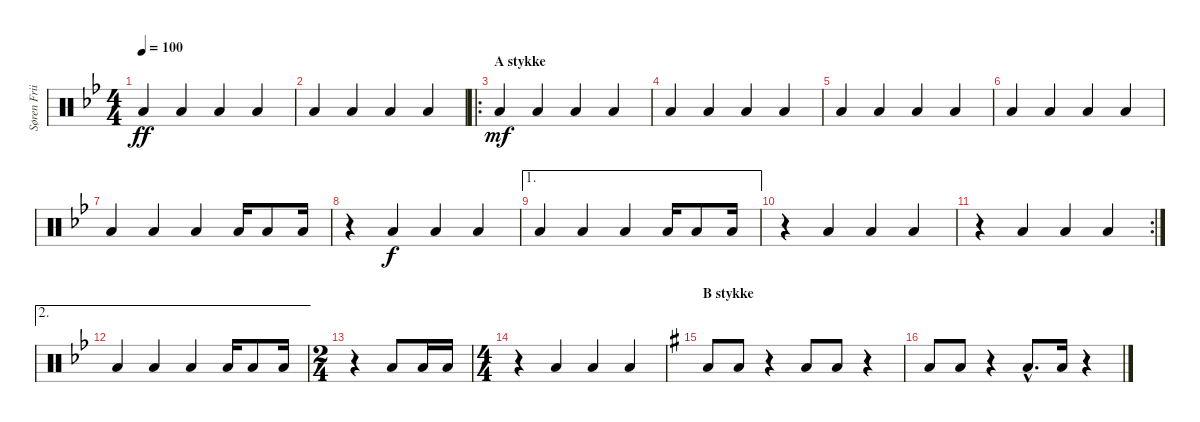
\track ("Søren Friis (Drums)" "Søren Frii") {instrument percussion}
\staff {score}
\articulation defaults
\ts (4 4)
\tempo 100
\clef neutral
\ks bb "Low Floor Tom (hit)".4{dy ff} "Low Floor Tom (hit)".4 "Low Floor Tom (hit)".4 "Low Floor Tom (hit)".4
|
"Low Floor Tom (hit)".4 "Low Floor Tom (hit)".4 "Low Floor Tom (hit)".4 "Low Floor Tom (hit)".4 |
\ro
\section ("" "A stykke")
"Low Floor Tom (hit)".4{dy mf} "Low Floor Tom (hit)".4 "Low Floor Tom (hit)".4 "Low Floor Tom (hit)".4 |
"Low Floor Tom (hit)".4 "Low Floor Tom (hit)".4 "Low Floor Tom (hit)".4 "Low Floor Tom (hit)".4 |
"Low Floor Tom (hit)".4 "Low Floor Tom (hit)".4 "Low Floor Tom (hit)".4 "Low Floor Tom (hit)".4 |
"Low Floor Tom (hit)".4 "Low Floor Tom (hit)".4 "Low Floor Tom (hit)".4 "Low Floor Tom (hit)".4 |
"Low Floor Tom (hit)".4 "Low Floor Tom (hit)".4 "Low Floor Tom (hit)".4 "Low Floor Tom (hit)".16 "Low Floor Tom (hit)".8 "Low Floor Tom (hit)".16 |
r.4 "Low Floor Tom (hit)".4{dy f} "Low Floor Tom (hit)".4 "Low Floor Tom (hit)".4 |
\ae 1 "Low Floor Tom (hit)".4 "Low Floor Tom (hit)".4 "Low Floor Tom (hit)".4 "Low Floor Tom (hit)".16 "Low Floor Tom (hit)".8 "Low Floor Tom (hit)".16
|
r.4 "Low Floor Tom (hit)".4 "Low Floor Tom (hit)".4 "Low Floor Tom (hit)".4 |
\rc 2
r.4 "Low Floor Tom (hit)".4 "Low Floor Tom (hit)".4 "Low Floor Tom (hit)".4 |
\ae 2 "Low Floor Tom (hit)".4 "Low Floor Tom (hit)".4 "Low Floor Tom (hit)".4 "Low Floor Tom (hit)".16 "Low Floor Tom (hit)".8 "Low Floor Tom (hit)".16
|
\ts (2 4)
r.4 "Low Floor Tom (hit)".8 "Low Floor Tom (hit)".16 "Low Floor Tom (hit)".16 |
\ts (4 4)
r.4 "Low Floor Tom (hit)".4 "Low Floor Tom (hit)".4 "Low Floor Tom (hit)".4 |
\section ("" "B stykke")
\ks g "Low Floor Tom (hit)".8 "Low Floor Tom (hit)".8
r.4 "Low Floor Tom (hit)".8 "Low Floor Tom (hit)".8 r.4 |
"Low Floor Tom (hit)".8 "Low Floor Tom (hit)".8 r.4 "Low Floor Tom (hit)"{hac}.8{d} "Low Floor Tom (hit)".16 r.4
